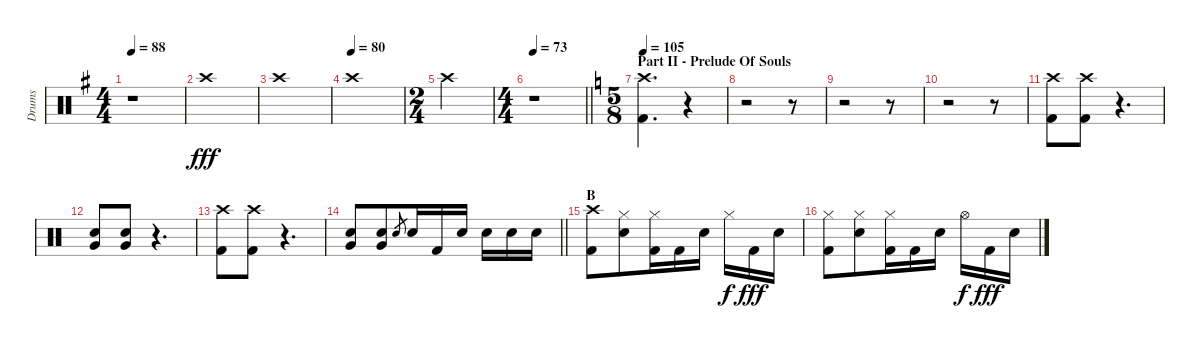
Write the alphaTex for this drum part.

\track ("Drums" "Drums") {instrument percussion}
\staff {score}
\articulation defaults
\ts (4 4)
\tempo 88
\clef neutral
\ks g
r.1{dy fff} |
"Crash high (hit)".1 |
"Crash high (hit)".1 |
\tempo (80)
"Crash high (hit)".1 |
\ts (2 4)
"Crash high (hit)".2 |
\ts (4 4)
\tempo 73
\barLineRight lightlight
r.1 |
\ts (5 8)
\section ("" "Part II - Prelude Of Souls")
\tempo 105
\ks aminor
("Crash high (hit)" "Kick (hit) 2").4{d} r.4 |
r.2 r.8 |
r.2 r.8 |
r.2 r.8 |
("Crash high (hit)" "Kick (hit) 2").8{beam merge} ("Crash high (hit)" "Kick (hit) 2").8 r.4{d} |
("Very Low Tom (hit)" "Snare (hit) 2").8{beam merge} ("Very Low Tom (hit)" "Snare (hit) 2").8 r.4{d} |
("Crash high (hit)" "Kick (hit) 2").8{beam merge} ("Crash high (hit)" "Kick (hit) 2").8 r.4{d} |
\barLineRight lightlight
("Very Low Tom (hit)" "Snare (hit) 2").8{beam merge} ("Very Low Tom (hit)" "Snare (hit) 2").8 "Snare (hit) 2".8{gr} "Snare (hit) 2".16 "Kick (hit) 2".16{beam merge} "Snare (hit) 2".16{beam split} "Snare (hit) 2".16{beam merge} "Snare (hit) 2".16 "Snare (hit) 2".16 |
\section ("" "B")
("Crash high (hit)" "Kick (hit) 2").8{beam merge} ("Hi-Hat (closed)" "Snare (hit) 2").8 ("Hi-Hat (closed)" "Kick (hit) 2").16 "Kick (hit) 2".16{beam merge} "Snare (hit) 2".16{beam split} "Hi-Hat (closed)".16{dy f beam merge} "Kick (hit) 2".16{dy fff} "Snare (hit) 2".16 |
("Hi-Hat (closed)" "Kick (hit) 2").8{beam merge} ("Hi-Hat (closed)" "Snare (hit) 2").8 ("Hi-Hat (closed)" "Kick (hit) 2").16 "Kick (hit) 2".16{beam merge} "Snare (hit) 2".16{beam split} "Hi-Hat (open)".16{dy f beam merge} "Kick (hit) 2".16{dy fff} "Snare (hit) 2".16
